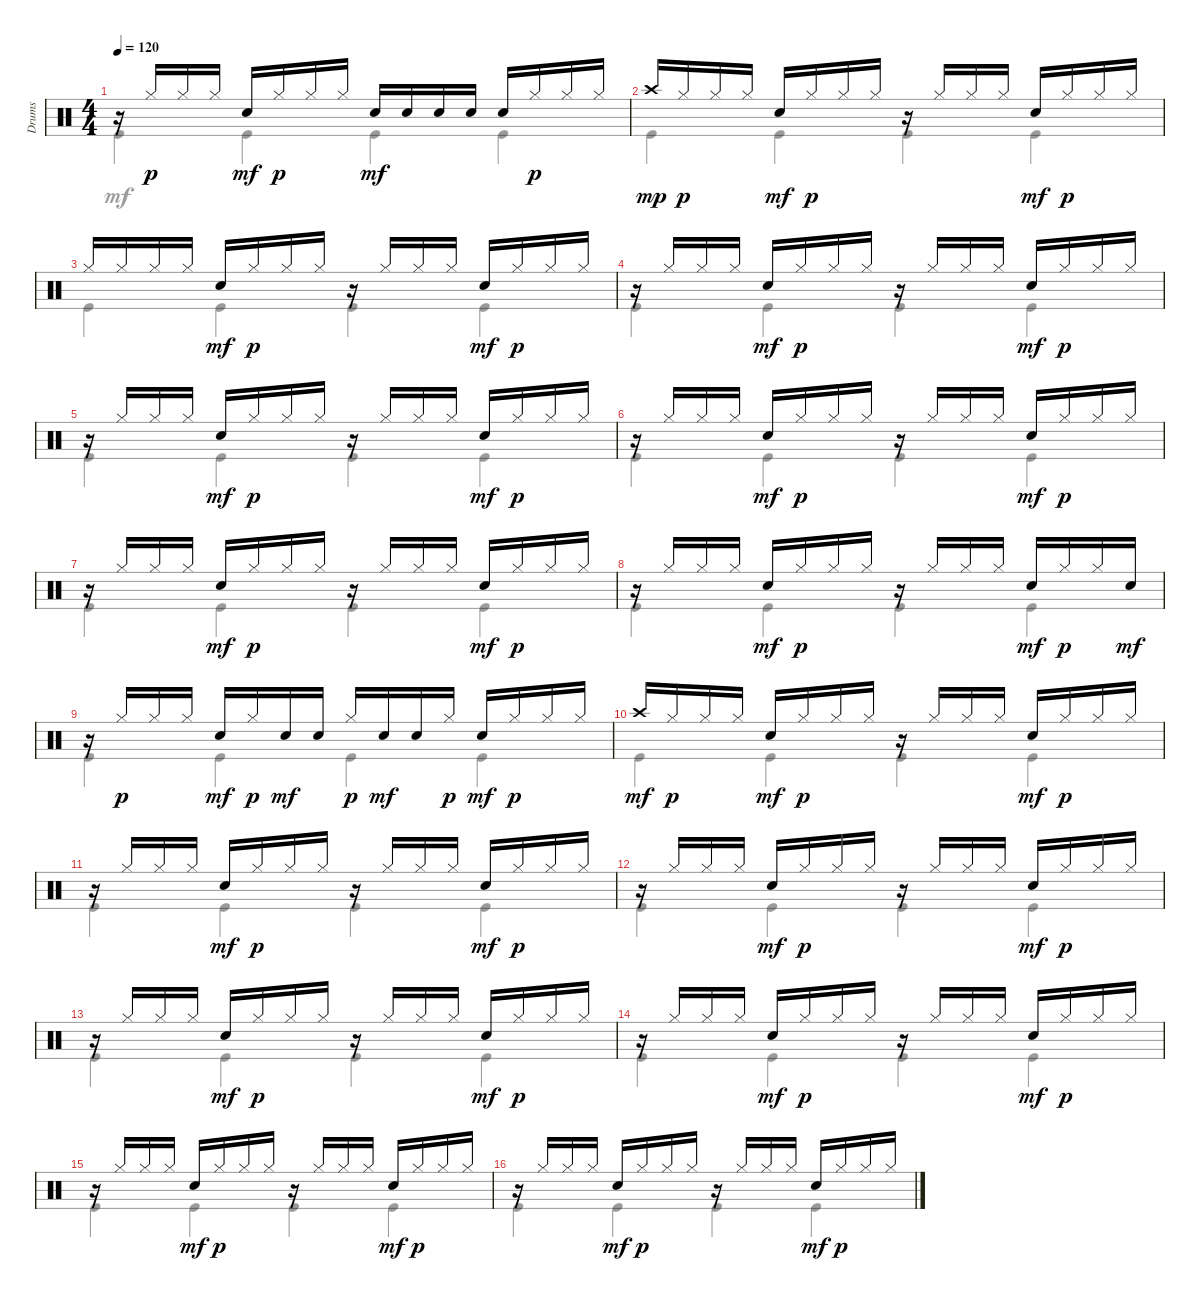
\track ("Drums" "Drums") {instrument percussion}
\staff {score}
\articulation defaults
\voice
\ts (4 4)
\tempo 120
\clef neutral
\ks c
r.16{dy p} "Hi-Hat (closed)".16 "Hi-Hat (closed)".16 "Hi-Hat (closed)".16 "Snare (hit) 2".16{dy mf} "Hi-Hat (closed)".16{dy p} "Hi-Hat (closed)".16 "Hi-Hat (closed)".16 "Snare (hit) 2".16{dy mf} "Snare (hit) 2".16 "Snare (hit) 2".16 "Snare (hit) 2".16 "Snare (hit) 2".16 "Hi-Hat (closed)".16{dy p} "Hi-Hat (closed)".16 "Hi-Hat (closed)".16 |
"Crash high (hit)".16{dy mp} "Hi-Hat (closed)".16{dy p} "Hi-Hat (closed)".16 "Hi-Hat (closed)".16 "Snare (hit) 2".16{dy mf} "Hi-Hat (closed)".16{dy p} "Hi-Hat (closed)".16 "Hi-Hat (closed)".16 r.16 "Hi-Hat (closed)".16 "Hi-Hat (closed)".16 "Hi-Hat (closed)".16 "Snare (hit) 2".16{dy mf} "Hi-Hat (closed)".16{dy p} "Hi-Hat (closed)".16 "Hi-Hat (closed)".16 |
"Hi-Hat (closed)".16 "Hi-Hat (closed)".16 "Hi-Hat (closed)".16 "Hi-Hat (closed)".16 "Snare (hit) 2".16{dy mf} "Hi-Hat (closed)".16{dy p} "Hi-Hat (closed)".16 "Hi-Hat (closed)".16 r.16 "Hi-Hat (closed)".16 "Hi-Hat (closed)".16 "Hi-Hat (closed)".16 "Snare (hit) 2".16{dy mf} "Hi-Hat (closed)".16{dy p} "Hi-Hat (closed)".16 "Hi-Hat (closed)".16 |
r.16 "Hi-Hat (closed)".16 "Hi-Hat (closed)".16 "Hi-Hat (closed)".16 "Snare (hit) 2".16{dy mf} "Hi-Hat (closed)".16{dy p} "Hi-Hat (closed)".16 "Hi-Hat (closed)".16 r.16 "Hi-Hat (closed)".16 "Hi-Hat (closed)".16 "Hi-Hat (closed)".16 "Snare (hit) 2".16{dy mf} "Hi-Hat (closed)".16{dy p} "Hi-Hat (closed)".16 "Hi-Hat (closed)".16 |
r.16 "Hi-Hat (closed)".16 "Hi-Hat (closed)".16 "Hi-Hat (closed)".16 "Snare (hit) 2".16{dy mf} "Hi-Hat (closed)".16{dy p} "Hi-Hat (closed)".16 "Hi-Hat (closed)".16 r.16 "Hi-Hat (closed)".16 "Hi-Hat (closed)".16 "Hi-Hat (closed)".16 "Snare (hit) 2".16{dy mf} "Hi-Hat (closed)".16{dy p} "Hi-Hat (closed)".16 "Hi-Hat (closed)".16 |
r.16 "Hi-Hat (closed)".16 "Hi-Hat (closed)".16 "Hi-Hat (closed)".16 "Snare (hit) 2".16{dy mf} "Hi-Hat (closed)".16{dy p} "Hi-Hat (closed)".16 "Hi-Hat (closed)".16 r.16 "Hi-Hat (closed)".16 "Hi-Hat (closed)".16 "Hi-Hat (closed)".16 "Snare (hit) 2".16{dy mf} "Hi-Hat (closed)".16{dy p} "Hi-Hat (closed)".16 "Hi-Hat (closed)".16 |
r.16 "Hi-Hat (closed)".16 "Hi-Hat (closed)".16 "Hi-Hat (closed)".16 "Snare (hit) 2".16{dy mf} "Hi-Hat (closed)".16{dy p} "Hi-Hat (closed)".16 "Hi-Hat (closed)".16 r.16 "Hi-Hat (closed)".16 "Hi-Hat (closed)".16 "Hi-Hat (closed)".16 "Snare (hit) 2".16{dy mf} "Hi-Hat (closed)".16{dy p} "Hi-Hat (closed)".16 "Hi-Hat (closed)".16 |
r.16 "Hi-Hat (closed)".16 "Hi-Hat (closed)".16 "Hi-Hat (closed)".16 "Snare (hit) 2".16{dy mf} "Hi-Hat (closed)".16{dy p} "Hi-Hat (closed)".16 "Hi-Hat (closed)".16 r.16 "Hi-Hat (closed)".16 "Hi-Hat (closed)".16 "Hi-Hat (closed)".16 "Snare (hit) 2".16{dy mf} "Hi-Hat (closed)".16{dy p} "Hi-Hat (closed)".16 "Snare (hit) 2".16{dy mf} |
r.16 "Hi-Hat (closed)".16{dy p} "Hi-Hat (closed)".16 "Hi-Hat (closed)".16 "Snare (hit) 2".16{dy mf} "Hi-Hat (closed)".16{dy p} "Snare (hit) 2".16{dy mf} "Snare (hit) 2".16 "Hi-Hat (closed)".16{dy p} "Snare (hit) 2".16{dy mf} "Snare (hit) 2".16 "Hi-Hat (closed)".16{dy p} "Snare (hit) 2".16{dy mf} "Hi-Hat (closed)".16{dy p} "Hi-Hat (closed)".16 "Hi-Hat (closed)".16 |
"Crash high (hit)".16{dy mf} "Hi-Hat (closed)".16{dy p} "Hi-Hat (closed)".16 "Hi-Hat (closed)".16 "Snare (hit) 2".16{dy mf} "Hi-Hat (closed)".16{dy p} "Hi-Hat (closed)".16 "Hi-Hat (closed)".16 r.16 "Hi-Hat (closed)".16 "Hi-Hat (closed)".16 "Hi-Hat (closed)".16 "Snare (hit) 2".16{dy mf} "Hi-Hat (closed)".16{dy p} "Hi-Hat (closed)".16 "Hi-Hat (closed)".16 |
r.16 "Hi-Hat (closed)".16 "Hi-Hat (closed)".16 "Hi-Hat (closed)".16 "Snare (hit) 2".16{dy mf} "Hi-Hat (closed)".16{dy p} "Hi-Hat (closed)".16 "Hi-Hat (closed)".16 r.16 "Hi-Hat (closed)".16 "Hi-Hat (closed)".16 "Hi-Hat (closed)".16 "Snare (hit) 2".16{dy mf} "Hi-Hat (closed)".16{dy p} "Hi-Hat (closed)".16 "Hi-Hat (closed)".16 |
r.16 "Hi-Hat (closed)".16 "Hi-Hat (closed)".16 "Hi-Hat (closed)".16 "Snare (hit) 2".16{dy mf} "Hi-Hat (closed)".16{dy p} "Hi-Hat (closed)".16 "Hi-Hat (closed)".16 r.16 "Hi-Hat (closed)".16 "Hi-Hat (closed)".16 "Hi-Hat (closed)".16 "Snare (hit) 2".16{dy mf} "Hi-Hat (closed)".16{dy p} "Hi-Hat (closed)".16 "Hi-Hat (closed)".16 |
r.16 "Hi-Hat (closed)".16 "Hi-Hat (closed)".16 "Hi-Hat (closed)".16 "Snare (hit) 2".16{dy mf} "Hi-Hat (closed)".16{dy p} "Hi-Hat (closed)".16 "Hi-Hat (closed)".16 r.16 "Hi-Hat (closed)".16 "Hi-Hat (closed)".16 "Hi-Hat (closed)".16 "Snare (hit) 2".16{dy mf} "Hi-Hat (closed)".16{dy p} "Hi-Hat (closed)".16 "Hi-Hat (closed)".16 |
r.16 "Hi-Hat (closed)".16 "Hi-Hat (closed)".16 "Hi-Hat (closed)".16 "Snare (hit) 2".16{dy mf} "Hi-Hat (closed)".16{dy p} "Hi-Hat (closed)".16 "Hi-Hat (closed)".16 r.16 "Hi-Hat (closed)".16 "Hi-Hat (closed)".16 "Hi-Hat (closed)".16 "Snare (hit) 2".16{dy mf} "Hi-Hat (closed)".16{dy p} "Hi-Hat (closed)".16 "Hi-Hat (closed)".16 |
r.16 "Hi-Hat (closed)".16 "Hi-Hat (closed)".16 "Hi-Hat (closed)".16 "Snare (hit) 2".16{dy mf} "Hi-Hat (closed)".16{dy p} "Hi-Hat (closed)".16 "Hi-Hat (closed)".16 r.16 "Hi-Hat (closed)".16 "Hi-Hat (closed)".16 "Hi-Hat (closed)".16 "Snare (hit) 2".16{dy mf} "Hi-Hat (closed)".16{dy p} "Hi-Hat (closed)".16 "Hi-Hat (closed)".16 |
r.16 "Hi-Hat (closed)".16 "Hi-Hat (closed)".16 "Hi-Hat (closed)".16 "Snare (hit) 2".16{dy mf} "Hi-Hat (closed)".16{dy p} "Hi-Hat (closed)".16 "Hi-Hat (closed)".16 r.16 "Hi-Hat (closed)".16 "Hi-Hat (closed)".16 "Hi-Hat (closed)".16 "Snare (hit) 2".16{dy mf} "Hi-Hat (closed)".16{dy p} "Hi-Hat (closed)".16 "Hi-Hat (closed)".16
\voice
\clef neutral
\ottava regular
\simile none
\ks c "Kick (hit)".4{dy mf} "Kick (hit)".4 "Kick (hit)".4 "Kick (hit)".4
|
"Kick (hit)".4 "Kick (hit)".4 "Kick (hit)".4 "Kick (hit)".4 |
"Kick (hit)".4 "Kick (hit)".4 "Kick (hit)".4 "Kick (hit)".4 |
"Kick (hit)".4 "Kick (hit)".4 "Kick (hit)".4 "Kick (hit)".4 |
"Kick (hit)".4 "Kick (hit)".4 "Kick (hit)".4 "Kick (hit)".4 |
"Kick (hit)".4 "Kick (hit)".4 "Kick (hit)".4 "Kick (hit)".4 |
"Kick (hit)".4 "Kick (hit)".4 "Kick (hit)".4 "Kick (hit)".4 |
"Kick (hit)".4 "Kick (hit)".4 "Kick (hit)".4 "Kick (hit)".4 |
"Kick (hit)".4 "Kick (hit)".4 "Kick (hit)".4 "Kick (hit)".4 |
"Kick (hit)".4 "Kick (hit)".4 "Kick (hit)".4 "Kick (hit)".4 |
"Kick (hit)".4 "Kick (hit)".4 "Kick (hit)".4 "Kick (hit)".4 |
"Kick (hit)".4 "Kick (hit)".4 "Kick (hit)".4 "Kick (hit)".4 |
"Kick (hit)".4 "Kick (hit)".4 "Kick (hit)".4 "Kick (hit)".4 |
"Kick (hit)".4 "Kick (hit)".4 "Kick (hit)".4 "Kick (hit)".4 |
"Kick (hit)".4 "Kick (hit)".4 "Kick (hit)".4 "Kick (hit)".4 |
"Kick (hit)".4 "Kick (hit)".4 "Kick (hit)".4 "Kick (hit)".4
